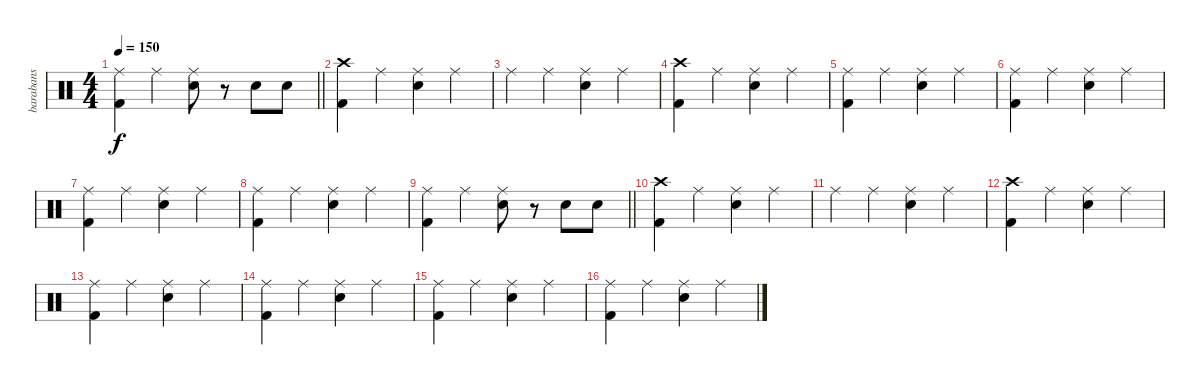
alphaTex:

\track ("barabans" "barabans") {instrument percussion}
\staff {score}
\articulation defaults
\ts (4 4)
\tempo 150
\clef neutral
\barLineRight lightlight
\ks c
("Ride (middle)" "Kick (hit) 2").4{dy f} "Ride (middle)".4 ("Ride (middle)" "Snare (hit) 2").8 r.8 "Snare (hit) 2".8 "Snare (hit) 2".8 |
("Crash high (hit)" "Kick (hit) 2").4 "Ride (middle)".4 ("Ride (middle)" "Snare (hit) 2").4 "Ride (middle)".4 |
"Ride (middle)".4 "Ride (middle)".4 ("Ride (middle)" "Snare (hit) 2").4 "Ride (middle)".4 |
("Crash high (hit)" "Kick (hit) 2").4 "Ride (middle)".4 ("Ride (middle)" "Snare (hit) 2").4 "Ride (middle)".4 |
("Ride (middle)" "Kick (hit) 2").4 "Ride (middle)".4 ("Ride (middle)" "Snare (hit) 2").4 "Ride (middle)".4 |
("Ride (middle)" "Kick (hit) 2").4 "Ride (middle)".4 ("Ride (middle)" "Snare (hit) 2").4 "Ride (middle)".4 |
("Ride (middle)" "Kick (hit) 2").4 "Ride (middle)".4 ("Ride (middle)" "Snare (hit) 2").4 "Ride (middle)".4 |
("Ride (middle)" "Kick (hit) 2").4 "Ride (middle)".4 ("Ride (middle)" "Snare (hit) 2").4 "Ride (middle)".4 |
\barLineRight lightlight
("Ride (middle)" "Kick (hit) 2").4 "Ride (middle)".4 ("Ride (middle)" "Snare (hit) 2").8 r.8 "Snare (hit) 2".8 "Snare (hit) 2".8 |
("Crash high (hit)" "Kick (hit) 2").4 "Ride (middle)".4 ("Ride (middle)" "Snare (hit) 2").4 "Ride (middle)".4 |
"Ride (middle)".4 "Ride (middle)".4 ("Ride (middle)" "Snare (hit) 2").4 "Ride (middle)".4 |
("Crash high (hit)" "Kick (hit) 2").4 "Ride (middle)".4 ("Ride (middle)" "Snare (hit) 2").4 "Ride (middle)".4 |
("Ride (middle)" "Kick (hit) 2").4 "Ride (middle)".4 ("Ride (middle)" "Snare (hit) 2").4 "Ride (middle)".4 |
("Ride (middle)" "Kick (hit) 2").4 "Ride (middle)".4 ("Ride (middle)" "Snare (hit) 2").4 "Ride (middle)".4 |
("Ride (middle)" "Kick (hit) 2").4 "Ride (middle)".4 ("Ride (middle)" "Snare (hit) 2").4 "Ride (middle)".4 |
("Ride (middle)" "Kick (hit) 2").4 "Ride (middle)".4 ("Ride (middle)" "Snare (hit) 2").4 "Ride (middle)".4
